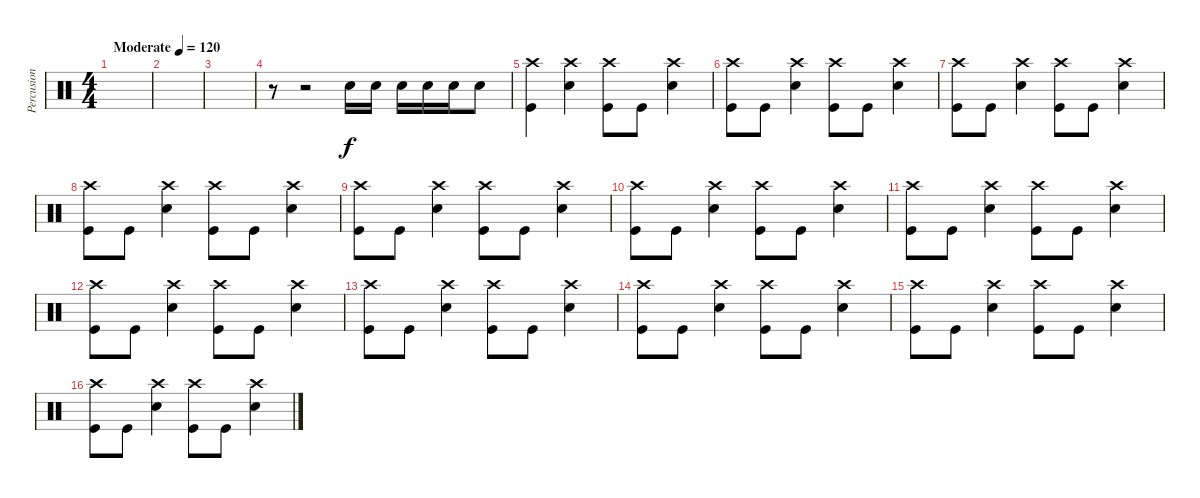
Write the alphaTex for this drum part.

\track ("Percusion " "Percusion ") {instrument percussion}
\staff {score}
\articulation defaults
\ts (4 4)
\tempo (120 "Moderate")
\clef neutral
\ks c
|
|
|
r.8 r.2 "Electric Snare (hit)".16 "Electric Snare (hit)".16 "Electric Snare (hit)".16 "Electric Snare (hit)".16 "Electric Snare (hit)".16 "Electric Snare (hit)".8 |
("Crash high (hit)" "Kick (hit)").4 ("Electric Snare (hit)" "Crash high (hit)").4 ("Crash high (hit)" "Kick (hit)").8 "Kick (hit)".8 ("Electric Snare (hit)" "Crash high (hit)").4 |
("Crash high (hit)" "Kick (hit)").8 "Kick (hit)".8 ("Electric Snare (hit)" "Crash high (hit)").4 ("Crash high (hit)" "Kick (hit)").8 "Kick (hit)".8 ("Electric Snare (hit)" "Crash high (hit)").4 |
("Crash high (hit)" "Kick (hit)").8 "Kick (hit)".8 ("Electric Snare (hit)" "Crash high (hit)").4 ("Crash high (hit)" "Kick (hit)").8 "Kick (hit)".8 ("Electric Snare (hit)" "Crash high (hit)").4 |
("Crash high (hit)" "Kick (hit)").8 "Kick (hit)".8 ("Electric Snare (hit)" "Crash high (hit)").4 ("Crash high (hit)" "Kick (hit)").8 "Kick (hit)".8 ("Electric Snare (hit)" "Crash high (hit)").4 |
("Crash high (hit)" "Kick (hit)").8 "Kick (hit)".8 ("Electric Snare (hit)" "Crash high (hit)").4 ("Crash high (hit)" "Kick (hit)").8 "Kick (hit)".8 ("Electric Snare (hit)" "Crash high (hit)").4 |
("Crash high (hit)" "Kick (hit)").8 "Kick (hit)".8 ("Electric Snare (hit)" "Crash high (hit)").4 ("Crash high (hit)" "Kick (hit)").8 "Kick (hit)".8 ("Electric Snare (hit)" "Crash high (hit)").4 |
("Crash high (hit)" "Kick (hit)").8 "Kick (hit)".8 ("Electric Snare (hit)" "Crash high (hit)").4 ("Crash high (hit)" "Kick (hit)").8 "Kick (hit)".8 ("Electric Snare (hit)" "Crash high (hit)").4 |
("Crash high (hit)" "Kick (hit)").8 "Kick (hit)".8 ("Electric Snare (hit)" "Crash high (hit)").4 ("Crash high (hit)" "Kick (hit)").8 "Kick (hit)".8 ("Electric Snare (hit)" "Crash high (hit)").4 |
("Crash high (hit)" "Kick (hit)").8 "Kick (hit)".8 ("Electric Snare (hit)" "Crash high (hit)").4 ("Crash high (hit)" "Kick (hit)").8 "Kick (hit)".8 ("Electric Snare (hit)" "Crash high (hit)").4 |
("Crash high (hit)" "Kick (hit)").8 "Kick (hit)".8 ("Electric Snare (hit)" "Crash high (hit)").4 ("Crash high (hit)" "Kick (hit)").8 "Kick (hit)".8 ("Electric Snare (hit)" "Crash high (hit)").4 |
("Crash high (hit)" "Kick (hit)").8 "Kick (hit)".8 ("Electric Snare (hit)" "Crash high (hit)").4 ("Crash high (hit)" "Kick (hit)").8 "Kick (hit)".8 ("Electric Snare (hit)" "Crash high (hit)").4 |
("Crash high (hit)" "Kick (hit)").8 "Kick (hit)".8 ("Electric Snare (hit)" "Crash high (hit)").4 ("Crash high (hit)" "Kick (hit)").8 "Kick (hit)".8 ("Electric Snare (hit)" "Crash high (hit)").4
